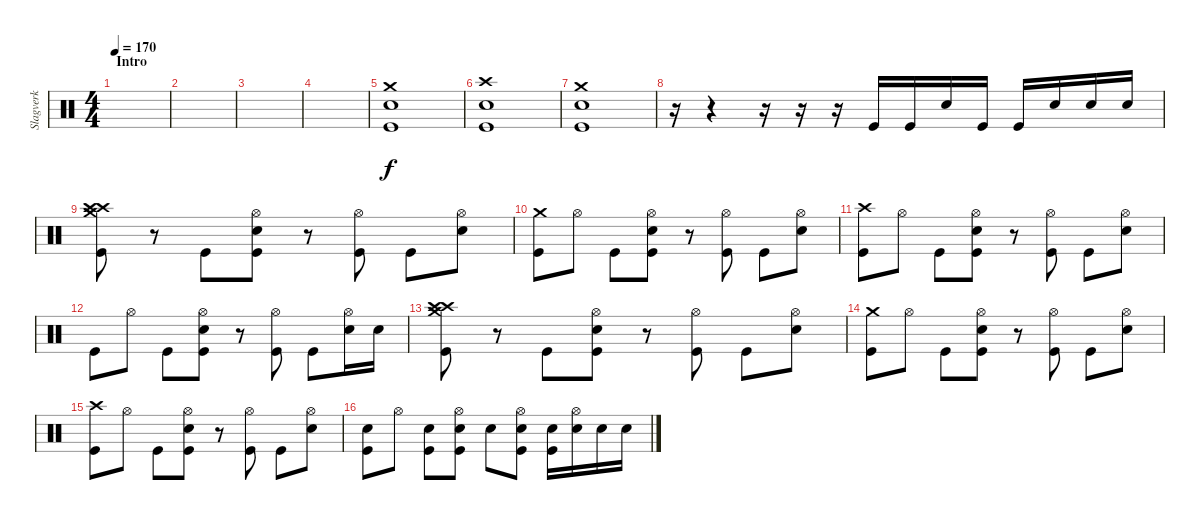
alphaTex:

\track ("Slagverk" "Slagverk") {instrument percussion}
\staff {score}
\articulation defaults
\ts (4 4)
\section ("" "Intro")
\tempo 170
\clef neutral
\ks c
|
|
|
|
("Crash medium (hit)" "Snare (hit) 2" "Kick (hit)").1 |
("Crash high (hit)" "Snare (hit) 2" "Kick (hit)").1 |
("Crash medium (hit)" "Snare (hit) 2" "Kick (hit)").1 |
r.16 r.4 r.16 r.16 r.16 "Kick (hit)".16 "Kick (hit)".16 "Snare (hit) 2".16 "Kick (hit)".16 "Kick (hit)".16 "Snare (hit) 2".16 "Snare (hit) 2".16 "Snare (hit) 2".16 |
("Crash high (hit)" "Crash high (hit)" "Crash medium (hit)" "Kick (hit)").8 r.8 "Kick (hit)".8 ("Hi-Hat (open)" "Snare (hit) 2" "Kick (hit)").8 r.8 ("Hi-Hat (open)" "Kick (hit)").8 "Kick (hit)".8 ("Hi-Hat (open)" "Snare (hit) 2").8 |
("Crash medium (hit)" "Kick (hit)").8 "Hi-Hat (open)".8 "Kick (hit)".8 ("Hi-Hat (open)" "Snare (hit) 2" "Kick (hit)").8 r.8 ("Hi-Hat (open)" "Kick (hit)").8 "Kick (hit)".8 ("Hi-Hat (open)" "Snare (hit) 2").8 |
("Crash high (hit)" "Kick (hit)").8 "Hi-Hat (open)".8 "Kick (hit)".8 ("Hi-Hat (open)" "Snare (hit) 2" "Kick (hit)").8 r.8 ("Hi-Hat (open)" "Kick (hit)").8 "Kick (hit)".8 ("Hi-Hat (open)" "Snare (hit) 2").8 |
"Kick (hit)".8 "Hi-Hat (open)".8 "Kick (hit)".8 ("Hi-Hat (open)" "Snare (hit) 2" "Kick (hit)").8 r.8 ("Hi-Hat (open)" "Kick (hit)").8 "Kick (hit)".8 ("Hi-Hat (open)" "Snare (hit) 2").16 "Snare (hit) 2".16 |
("Crash high (hit)" "Crash high (hit)" "Crash medium (hit)" "Kick (hit)").8 r.8 "Kick (hit)".8 ("Hi-Hat (open)" "Snare (hit) 2" "Kick (hit)").8 r.8 ("Hi-Hat (open)" "Kick (hit)").8 "Kick (hit)".8 ("Hi-Hat (open)" "Snare (hit) 2").8 |
("Crash medium (hit)" "Kick (hit)").8 "Hi-Hat (open)".8 "Kick (hit)".8 ("Hi-Hat (open)" "Snare (hit) 2" "Kick (hit)").8 r.8 ("Hi-Hat (open)" "Kick (hit)").8 "Kick (hit)".8 ("Hi-Hat (open)" "Snare (hit) 2").8 |
("Crash high (hit)" "Kick (hit)").8 "Hi-Hat (open)".8 "Kick (hit)".8 ("Hi-Hat (open)" "Snare (hit) 2" "Kick (hit)").8 r.8 ("Hi-Hat (open)" "Kick (hit)").8 "Kick (hit)".8 ("Hi-Hat (open)" "Snare (hit) 2").8 |
("Snare (hit) 2" "Kick (hit)").8 "Hi-Hat (open)".8 ("Snare (hit) 2" "Kick (hit)").8 ("Hi-Hat (open)" "Snare (hit) 2" "Kick (hit)").8 "Snare (hit) 2".8 ("Hi-Hat (open)" "Snare (hit) 2" "Kick (hit)").8 ("Snare (hit) 2" "Kick (hit)").16 ("Hi-Hat (open)" "Snare (hit) 2").16 "Snare (hit) 2".16 "Snare (hit) 2".16
